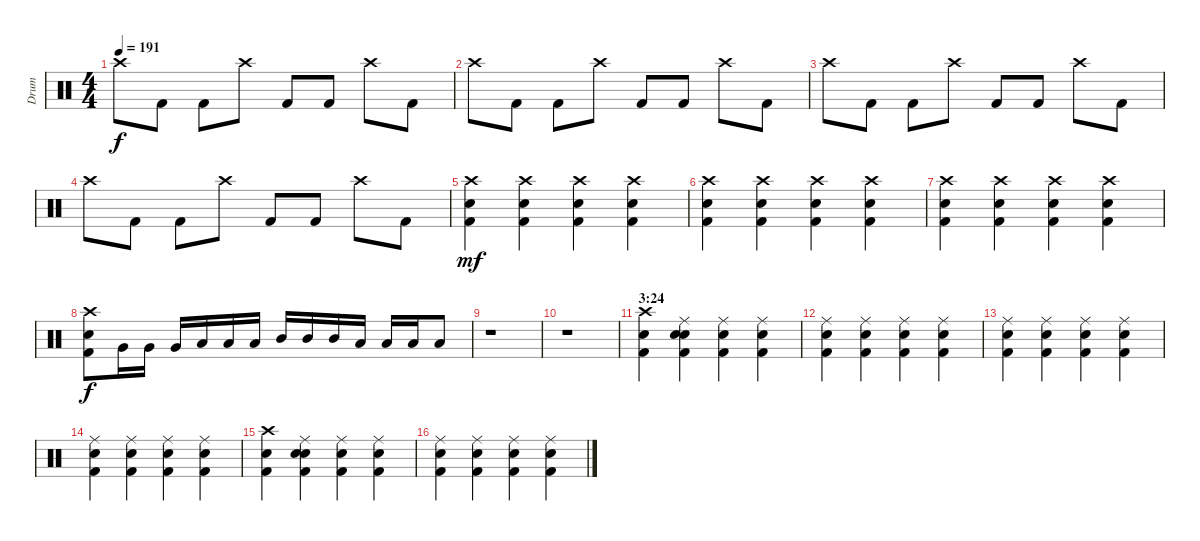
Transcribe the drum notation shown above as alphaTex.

\track ("Drum" "Drum") {instrument percussion}
\staff {score}
\articulation defaults
\ts (4 4)
\tempo 191
\clef neutral
\ks c "Crash high (hit)".8{dy f} "Kick (hit) 2".8 "Kick (hit) 2".8 "Crash high (hit)".8 "Kick (hit) 2".8 "Kick (hit) 2".8 "Crash high (hit)".8 "Kick (hit) 2".8
|
"Crash high (hit)".8 "Kick (hit) 2".8 "Kick (hit) 2".8 "Crash high (hit)".8 "Kick (hit) 2".8 "Kick (hit) 2".8 "Crash high (hit)".8 "Kick (hit) 2".8 |
"Crash high (hit)".8 "Kick (hit) 2".8 "Kick (hit) 2".8 "Crash high (hit)".8 "Kick (hit) 2".8 "Kick (hit) 2".8 "Crash high (hit)".8 "Kick (hit) 2".8 |
"Crash high (hit)".8 "Kick (hit) 2".8 "Kick (hit) 2".8 "Crash high (hit)".8 "Kick (hit) 2".8 "Kick (hit) 2".8 "Crash high (hit)".8 "Kick (hit) 2".8 |
("Kick (hit) 2" "Snare (hit) 2" "Crash high (hit)").4{dy mf} ("Kick (hit) 2" "Snare (hit) 2" "Crash high (hit)").4 ("Kick (hit) 2" "Snare (hit) 2" "Crash high (hit)").4 ("Kick (hit) 2" "Snare (hit) 2" "Crash high (hit)").4 |
("Kick (hit) 2" "Snare (hit) 2" "Crash high (hit)").4 ("Kick (hit) 2" "Snare (hit) 2" "Crash high (hit)").4 ("Kick (hit) 2" "Snare (hit) 2" "Crash high (hit)").4 ("Kick (hit) 2" "Snare (hit) 2" "Crash high (hit)").4 |
("Kick (hit) 2" "Snare (hit) 2" "Crash high (hit)").4 ("Kick (hit) 2" "Snare (hit) 2" "Crash high (hit)").4 ("Kick (hit) 2" "Snare (hit) 2" "Crash high (hit)").4 ("Kick (hit) 2" "Snare (hit) 2" "Crash high (hit)").4 |
("Kick (hit) 2" "Snare (hit) 2" "Crash high (hit)").8{dy f} "Very Low Tom (hit)".16 "Very Low Tom (hit)".16 "Very Low Tom (hit)".16 "Low Tom (hit)".16 "Low Tom (hit)".16 "Low Tom (hit)".16 "Mid Tom (hit)".16 "Mid Tom (hit)".16 "Mid Tom (hit)".16 "Low Floor Tom (hit)".16 "Low Floor Tom (hit)".16 "Low Floor Tom (hit)".16 "Low Floor Tom (hit)".8 |
r.1 |
r.1 |
\section ("" "3:24")
("Kick (hit) 2" "Snare (hit) 2" "Crash high (hit)").4 ("Kick (hit) 2" "Snare (hit) 2" "Ride (middle)" "Snare (hit)").4 ("Kick (hit) 2" "Snare (hit) 2" "Ride (middle)").4 ("Kick (hit) 2" "Snare (hit) 2" "Ride (middle)").4 |
("Kick (hit) 2" "Snare (hit) 2" "Ride (middle)").4 ("Kick (hit) 2" "Snare (hit) 2" "Ride (middle)").4 ("Kick (hit) 2" "Snare (hit) 2" "Ride (middle)").4 ("Kick (hit) 2" "Snare (hit) 2" "Ride (middle)").4 |
("Kick (hit) 2" "Snare (hit) 2" "Ride (middle)").4 ("Kick (hit) 2" "Snare (hit) 2" "Ride (middle)").4 ("Kick (hit) 2" "Snare (hit) 2" "Ride (middle)").4 ("Kick (hit) 2" "Snare (hit) 2" "Ride (middle)").4 |
("Kick (hit) 2" "Snare (hit) 2" "Ride (middle)").4 ("Kick (hit) 2" "Snare (hit) 2" "Ride (middle)").4 ("Kick (hit) 2" "Snare (hit) 2" "Ride (middle)").4 ("Kick (hit) 2" "Snare (hit) 2" "Ride (middle)").4 |
("Kick (hit) 2" "Snare (hit) 2" "Crash high (hit)").4 ("Kick (hit) 2" "Snare (hit) 2" "Ride (middle)" "Snare (hit)").4 ("Kick (hit) 2" "Snare (hit) 2" "Ride (middle)").4 ("Kick (hit) 2" "Snare (hit) 2" "Ride (middle)").4 |
("Kick (hit) 2" "Snare (hit) 2" "Ride (middle)").4 ("Kick (hit) 2" "Snare (hit) 2" "Ride (middle)").4 ("Kick (hit) 2" "Snare (hit) 2" "Ride (middle)").4 ("Kick (hit) 2" "Snare (hit) 2" "Ride (middle)").4
